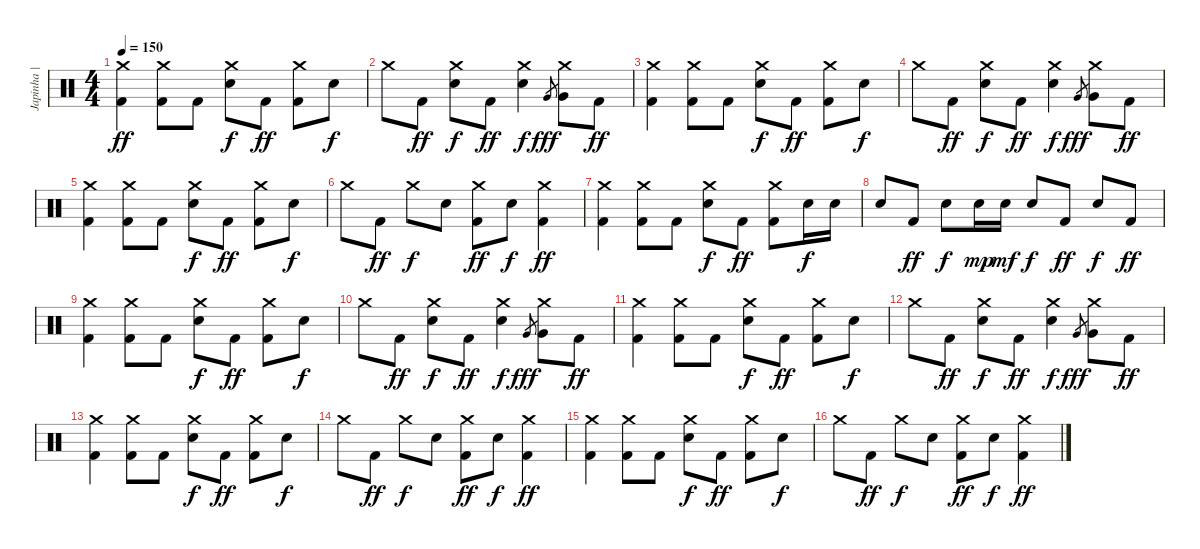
\track ("Japinha | Bateria" "Japinha | ") {instrument percussion}
\staff {score}
\articulation defaults
\ts (4 4)
\tempo 150
\clef neutral
\ks c
("Crash medium (hit)" "Kick (hit) 2").4{dy ff} ("Crash medium (hit)" "Kick (hit) 2").8 "Kick (hit) 2".8 ("Crash medium (hit)" "Electric Snare (hit)").8{dy f} "Kick (hit) 2".8{dy ff} ("Crash medium (hit)" "Kick (hit) 2").8 "Electric Snare (hit)".8{dy f} |
"Crash medium (hit)".8 "Kick (hit) 2".8{dy ff} ("Crash medium (hit)" "Electric Snare (hit)").8{dy f} "Kick (hit) 2".8{dy ff} ("Crash medium (hit)" "Electric Snare (hit)").4{dy f} "Very Low Tom (hit)".8{gr dy fff} ("Crash medium (hit)" "Very Low Tom (hit)").8 "Kick (hit) 2".8{dy ff} |
("Crash medium (hit)" "Kick (hit) 2").4 ("Crash medium (hit)" "Kick (hit) 2").8 "Kick (hit) 2".8 ("Crash medium (hit)" "Electric Snare (hit)").8{dy f} "Kick (hit) 2".8{dy ff} ("Crash medium (hit)" "Kick (hit) 2").8 "Electric Snare (hit)".8{dy f} |
"Crash medium (hit)".8 "Kick (hit) 2".8{dy ff} ("Crash medium (hit)" "Electric Snare (hit)").8{dy f} "Kick (hit) 2".8{dy ff} ("Crash medium (hit)" "Electric Snare (hit)").4{dy f} "Very Low Tom (hit)".8{gr dy fff} ("Crash medium (hit)" "Very Low Tom (hit)").8 "Kick (hit) 2".8{dy ff} |
("Crash medium (hit)" "Kick (hit) 2").4 ("Crash medium (hit)" "Kick (hit) 2").8 "Kick (hit) 2".8 ("Crash medium (hit)" "Electric Snare (hit)").8{dy f} "Kick (hit) 2".8{dy ff} ("Crash medium (hit)" "Kick (hit) 2").8 "Electric Snare (hit)".8{dy f} |
"Crash medium (hit)".8 "Kick (hit) 2".8{dy ff} "Crash medium (hit)".8{dy f} "Electric Snare (hit)".8 ("Crash medium (hit)" "Kick (hit) 2").8{dy ff} "Electric Snare (hit)".8{dy f} ("Crash medium (hit)" "Kick (hit) 2").4{dy ff} |
("Crash medium (hit)" "Kick (hit) 2").4 ("Crash medium (hit)" "Kick (hit) 2").8 "Kick (hit) 2".8 ("Crash medium (hit)" "Electric Snare (hit)").8{dy f} "Kick (hit) 2".8{dy ff} ("Crash medium (hit)" "Kick (hit) 2").8 "Electric Snare (hit)".16{dy f} "Electric Snare (hit)".16 |
"Electric Snare (hit)".8 "Kick (hit) 2".8{dy ff} "Electric Snare (hit)".8{dy f} "Electric Snare (hit)".16{dy mp} "Electric Snare (hit)".16{dy mf} "Electric Snare (hit)".8{dy f} "Kick (hit) 2".8{dy ff} "Electric Snare (hit)".8{dy f} "Kick (hit) 2".8{dy ff} |
("Crash medium (hit)" "Kick (hit) 2").4 ("Crash medium (hit)" "Kick (hit) 2").8 "Kick (hit) 2".8 ("Crash medium (hit)" "Electric Snare (hit)").8{dy f} "Kick (hit) 2".8{dy ff} ("Crash medium (hit)" "Kick (hit) 2").8 "Electric Snare (hit)".8{dy f} |
"Crash medium (hit)".8 "Kick (hit) 2".8{dy ff} ("Crash medium (hit)" "Electric Snare (hit)").8{dy f} "Kick (hit) 2".8{dy ff} ("Crash medium (hit)" "Electric Snare (hit)").4{dy f} "Very Low Tom (hit)".8{gr dy fff} ("Crash medium (hit)" "Very Low Tom (hit)").8 "Kick (hit) 2".8{dy ff} |
("Crash medium (hit)" "Kick (hit) 2").4 ("Crash medium (hit)" "Kick (hit) 2").8 "Kick (hit) 2".8 ("Crash medium (hit)" "Electric Snare (hit)").8{dy f} "Kick (hit) 2".8{dy ff} ("Crash medium (hit)" "Kick (hit) 2").8 "Electric Snare (hit)".8{dy f} |
"Crash medium (hit)".8 "Kick (hit) 2".8{dy ff} ("Crash medium (hit)" "Electric Snare (hit)").8{dy f} "Kick (hit) 2".8{dy ff} ("Crash medium (hit)" "Electric Snare (hit)").4{dy f} "Very Low Tom (hit)".8{gr dy fff} ("Crash medium (hit)" "Very Low Tom (hit)").8 "Kick (hit) 2".8{dy ff} |
("Crash medium (hit)" "Kick (hit) 2").4 ("Crash medium (hit)" "Kick (hit) 2").8 "Kick (hit) 2".8 ("Crash medium (hit)" "Electric Snare (hit)").8{dy f} "Kick (hit) 2".8{dy ff} ("Crash medium (hit)" "Kick (hit) 2").8 "Electric Snare (hit)".8{dy f} |
"Crash medium (hit)".8 "Kick (hit) 2".8{dy ff} "Crash medium (hit)".8{dy f} "Electric Snare (hit)".8 ("Crash medium (hit)" "Kick (hit) 2").8{dy ff} "Electric Snare (hit)".8{dy f} ("Crash medium (hit)" "Kick (hit) 2").4{dy ff} |
("Crash medium (hit)" "Kick (hit) 2").4 ("Crash medium (hit)" "Kick (hit) 2").8 "Kick (hit) 2".8 ("Crash medium (hit)" "Electric Snare (hit)").8{dy f} "Kick (hit) 2".8{dy ff} ("Crash medium (hit)" "Kick (hit) 2").8 "Electric Snare (hit)".8{dy f} |
"Crash medium (hit)".8 "Kick (hit) 2".8{dy ff} "Crash medium (hit)".8{dy f} "Electric Snare (hit)".8 ("Crash medium (hit)" "Kick (hit) 2").8{dy ff} "Electric Snare (hit)".8{dy f} ("Crash medium (hit)" "Kick (hit) 2").4{dy ff}
